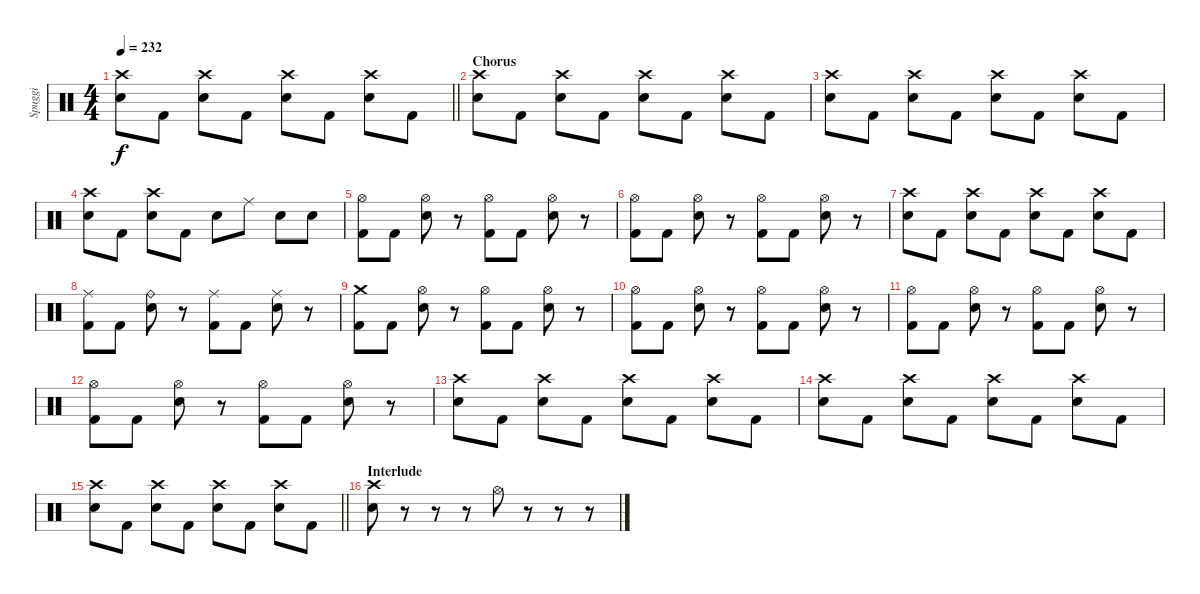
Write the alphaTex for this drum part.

\track ("Spuggi" "Spuggi") {instrument percussion}
\staff {score}
\articulation defaults
\ts (4 4)
\tempo 232
\clef neutral
\barLineRight lightlight
\ks c
("Crash high (hit)" "Snare (hit) 2").8{dy f} "Kick (hit) 2".8 ("Crash high (hit)" "Snare (hit) 2").8 "Kick (hit) 2".8 ("Crash high (hit)" "Snare (hit) 2").8 "Kick (hit) 2".8 ("Crash high (hit)" "Snare (hit) 2").8 "Kick (hit) 2".8 |
\section ("" "Chorus")
("Crash high (hit)" "Snare (hit) 2").8 "Kick (hit) 2".8 ("Crash high (hit)" "Snare (hit) 2").8 "Kick (hit) 2".8 ("Crash high (hit)" "Snare (hit) 2").8 "Kick (hit) 2".8 ("Crash high (hit)" "Snare (hit) 2").8 "Kick (hit) 2".8 |
("Crash high (hit)" "Snare (hit) 2").8 "Kick (hit) 2".8 ("Crash high (hit)" "Snare (hit) 2").8 "Kick (hit) 2".8 ("Crash high (hit)" "Snare (hit) 2").8 "Kick (hit) 2".8 ("Crash high (hit)" "Snare (hit) 2").8 "Kick (hit) 2".8 |
("Crash high (hit)" "Snare (hit) 2").8 "Kick (hit) 2".8 ("Crash high (hit)" "Snare (hit) 2").8 "Kick (hit) 2".8 "Snare (hit) 2".8 "Ride (middle)".8 "Snare (hit) 2".8 "Snare (hit) 2".8 |
("Hi-Hat (open)" "Kick (hit) 2").8 "Kick (hit) 2".8 ("Hi-Hat (open)" "Snare (hit) 2").8 r.8 ("Hi-Hat (open)" "Kick (hit) 2").8 "Kick (hit) 2".8 ("Hi-Hat (open)" "Snare (hit) 2").8 r.8 |
("Hi-Hat (open)" "Kick (hit) 2").8 "Kick (hit) 2".8 ("Hi-Hat (open)" "Snare (hit) 2").8 r.8 ("Hi-Hat (open)" "Kick (hit) 2").8 "Kick (hit) 2".8 ("Hi-Hat (open)" "Snare (hit) 2").8 r.8 |
("Crash high (hit)" "Snare (hit) 2").8 "Kick (hit) 2".8 ("Crash high (hit)" "Snare (hit) 2").8 "Kick (hit) 2".8 ("Crash high (hit)" "Snare (hit) 2").8 "Kick (hit) 2".8 ("Crash high (hit)" "Snare (hit) 2").8 "Kick (hit) 2".8 |
("Ride (middle)" "Kick (hit) 2").8 "Kick (hit) 2".8 ("Ride (bell)" "Snare (hit) 2").8 r.8 ("Ride (middle)" "Kick (hit) 2").8 "Kick (hit) 2".8 ("Ride (middle)" "Snare (hit) 2").8 r.8 |
("Crash medium (hit)" "Kick (hit) 2").8 "Kick (hit) 2".8 ("Hi-Hat (open)" "Snare (hit) 2").8 r.8 ("Hi-Hat (open)" "Kick (hit) 2").8 "Kick (hit) 2".8 ("Hi-Hat (open)" "Snare (hit) 2").8 r.8 |
("Hi-Hat (open)" "Kick (hit) 2").8 "Kick (hit) 2".8 ("Hi-Hat (open)" "Snare (hit) 2").8 r.8 ("Hi-Hat (open)" "Kick (hit) 2").8 "Kick (hit) 2".8 ("Hi-Hat (open)" "Snare (hit) 2").8 r.8 |
("Hi-Hat (open)" "Kick (hit) 2").8 "Kick (hit) 2".8 ("Hi-Hat (open)" "Snare (hit) 2").8 r.8 ("Hi-Hat (open)" "Kick (hit) 2").8 "Kick (hit) 2".8 ("Hi-Hat (open)" "Snare (hit) 2").8 r.8 |
("Hi-Hat (open)" "Kick (hit) 2").8 "Kick (hit) 2".8 ("Hi-Hat (open)" "Snare (hit) 2").8 r.8 ("Hi-Hat (open)" "Kick (hit) 2").8 "Kick (hit) 2".8 ("Hi-Hat (open)" "Snare (hit) 2").8 r.8 |
("Crash high (hit)" "Snare (hit) 2").8 "Kick (hit) 2".8 ("Crash high (hit)" "Snare (hit) 2").8 "Kick (hit) 2".8 ("Crash high (hit)" "Snare (hit) 2").8 "Kick (hit) 2".8 ("Crash high (hit)" "Snare (hit) 2").8 "Kick (hit) 2".8 |
("Crash high (hit)" "Snare (hit) 2").8 "Kick (hit) 2".8 ("Crash high (hit)" "Snare (hit) 2").8 "Kick (hit) 2".8 ("Crash high (hit)" "Snare (hit) 2").8 "Kick (hit) 2".8 ("Crash high (hit)" "Snare (hit) 2").8 "Kick (hit) 2".8 |
\barLineRight lightlight
("Crash high (hit)" "Snare (hit) 2").8 "Kick (hit) 2".8 ("Crash high (hit)" "Snare (hit) 2").8 "Kick (hit) 2".8 ("Crash high (hit)" "Snare (hit) 2").8 "Kick (hit) 2".8 ("Crash high (hit)" "Snare (hit) 2").8 "Kick (hit) 2".8 |
\section ("" "Interlude")
("Crash high (hit)" "Snare (hit) 2").8 r.8 r.8 r.8 "Hi-Hat (open)".8 r.8 r.8 r.8
